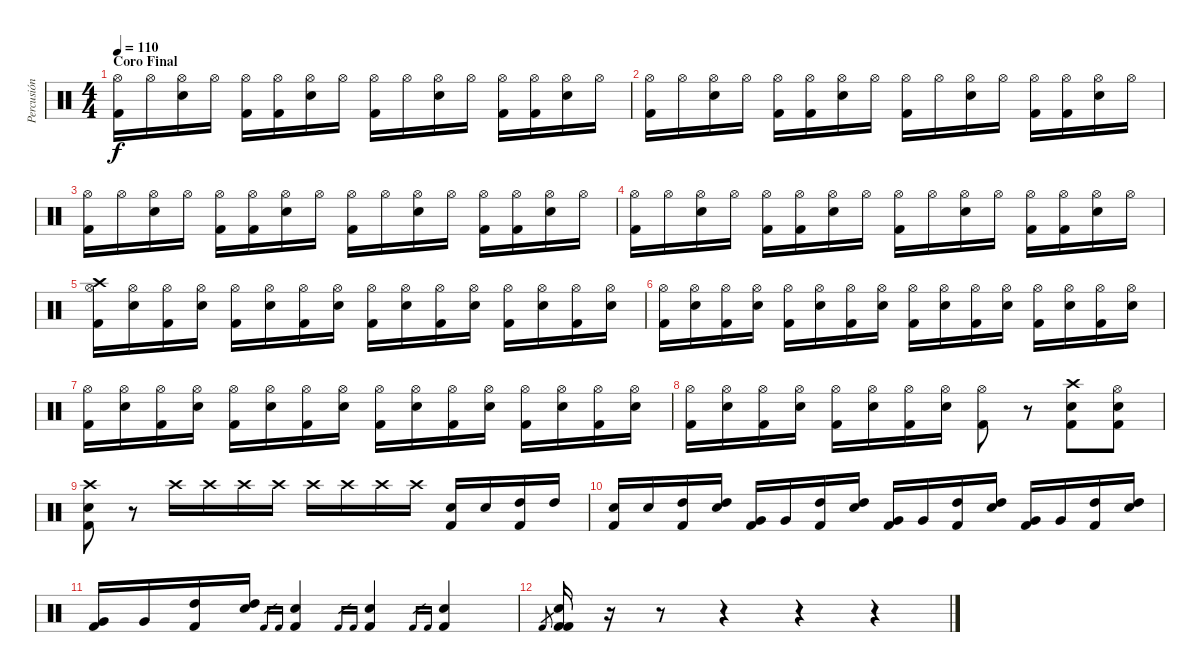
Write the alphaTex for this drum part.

\track ("Percusión" "Percusión") {instrument percussion}
\staff {score}
\articulation defaults
\ts (4 4)
\section ("" "Coro Final")
\tempo 110
\clef neutral
\ks c
("Hi-Hat (open)" "Kick (hit) 2").16{dy f} "Hi-Hat (open)".16 ("Hi-Hat (open)" "Snare (hit) 2").16 "Hi-Hat (open)".16 ("Hi-Hat (open)" "Kick (hit) 2").16 ("Hi-Hat (open)" "Kick (hit) 2").16 ("Hi-Hat (open)" "Snare (hit) 2").16 "Hi-Hat (open)".16 ("Hi-Hat (open)" "Kick (hit) 2").16 "Hi-Hat (open)".16 ("Hi-Hat (open)" "Snare (hit) 2").16 "Hi-Hat (open)".16 ("Hi-Hat (open)" "Kick (hit) 2").16 ("Hi-Hat (open)" "Kick (hit) 2").16 ("Hi-Hat (open)" "Snare (hit) 2").16 "Hi-Hat (open)".16 |
("Hi-Hat (open)" "Kick (hit) 2").16 "Hi-Hat (open)".16 ("Hi-Hat (open)" "Snare (hit) 2").16 "Hi-Hat (open)".16 ("Hi-Hat (open)" "Kick (hit) 2").16 ("Hi-Hat (open)" "Kick (hit) 2").16 ("Hi-Hat (open)" "Snare (hit) 2").16 "Hi-Hat (open)".16 ("Hi-Hat (open)" "Kick (hit) 2").16 "Hi-Hat (open)".16 ("Hi-Hat (open)" "Snare (hit) 2").16 "Hi-Hat (open)".16 ("Hi-Hat (open)" "Kick (hit) 2").16 ("Hi-Hat (open)" "Kick (hit) 2").16 ("Hi-Hat (open)" "Snare (hit) 2").16 "Hi-Hat (open)".16 |
("Hi-Hat (open)" "Kick (hit) 2").16 "Hi-Hat (open)".16 ("Hi-Hat (open)" "Snare (hit) 2").16 "Hi-Hat (open)".16 ("Hi-Hat (open)" "Kick (hit) 2").16 ("Hi-Hat (open)" "Kick (hit) 2").16 ("Hi-Hat (open)" "Snare (hit) 2").16 "Hi-Hat (open)".16 ("Hi-Hat (open)" "Kick (hit) 2").16 "Hi-Hat (open)".16 ("Hi-Hat (open)" "Snare (hit) 2").16 "Hi-Hat (open)".16 ("Hi-Hat (open)" "Kick (hit) 2").16 ("Hi-Hat (open)" "Kick (hit) 2").16 ("Hi-Hat (open)" "Snare (hit) 2").16 "Hi-Hat (open)".16 |
("Hi-Hat (open)" "Kick (hit) 2").16 "Hi-Hat (open)".16 ("Hi-Hat (open)" "Snare (hit) 2").16 "Hi-Hat (open)".16 ("Hi-Hat (open)" "Kick (hit) 2").16 ("Hi-Hat (open)" "Kick (hit) 2").16 ("Hi-Hat (open)" "Snare (hit) 2").16 "Hi-Hat (open)".16 ("Hi-Hat (open)" "Kick (hit) 2").16 "Hi-Hat (open)".16 ("Hi-Hat (open)" "Snare (hit) 2").16 "Hi-Hat (open)".16 ("Hi-Hat (open)" "Kick (hit) 2").16 ("Hi-Hat (open)" "Kick (hit) 2").16 ("Hi-Hat (open)" "Snare (hit) 2").16 "Hi-Hat (open)".16 |
("Crash high (hit)" "Hi-Hat (open)" "Kick (hit) 2").16 ("Hi-Hat (open)" "Snare (hit) 2").16 ("Hi-Hat (open)" "Kick (hit) 2").16 ("Hi-Hat (open)" "Snare (hit) 2").16 ("Hi-Hat (open)" "Kick (hit) 2").16 ("Hi-Hat (open)" "Snare (hit) 2").16 ("Hi-Hat (open)" "Kick (hit) 2").16 ("Hi-Hat (open)" "Snare (hit) 2").16 ("Hi-Hat (open)" "Kick (hit) 2").16 ("Hi-Hat (open)" "Snare (hit) 2").16 ("Hi-Hat (open)" "Kick (hit) 2").16 ("Hi-Hat (open)" "Snare (hit) 2").16 ("Hi-Hat (open)" "Kick (hit) 2").16 ("Hi-Hat (open)" "Snare (hit) 2").16 ("Hi-Hat (open)" "Kick (hit) 2").16 ("Hi-Hat (open)" "Snare (hit) 2").16 |
("Hi-Hat (open)" "Kick (hit) 2").16 ("Hi-Hat (open)" "Snare (hit) 2").16 ("Hi-Hat (open)" "Kick (hit) 2").16 ("Hi-Hat (open)" "Snare (hit) 2").16 ("Hi-Hat (open)" "Kick (hit) 2").16 ("Hi-Hat (open)" "Snare (hit) 2").16 ("Hi-Hat (open)" "Kick (hit) 2").16 ("Hi-Hat (open)" "Snare (hit) 2").16 ("Hi-Hat (open)" "Kick (hit) 2").16 ("Hi-Hat (open)" "Snare (hit) 2").16 ("Hi-Hat (open)" "Kick (hit) 2").16 ("Hi-Hat (open)" "Snare (hit) 2").16 ("Hi-Hat (open)" "Kick (hit) 2").16 ("Hi-Hat (open)" "Snare (hit) 2").16 ("Hi-Hat (open)" "Kick (hit) 2").16 ("Hi-Hat (open)" "Snare (hit) 2").16 |
("Hi-Hat (open)" "Kick (hit) 2").16 ("Hi-Hat (open)" "Snare (hit) 2").16 ("Hi-Hat (open)" "Kick (hit) 2").16 ("Hi-Hat (open)" "Snare (hit) 2").16 ("Hi-Hat (open)" "Kick (hit) 2").16 ("Hi-Hat (open)" "Snare (hit) 2").16 ("Hi-Hat (open)" "Kick (hit) 2").16 ("Hi-Hat (open)" "Snare (hit) 2").16 ("Hi-Hat (open)" "Kick (hit) 2").16 ("Hi-Hat (open)" "Snare (hit) 2").16 ("Hi-Hat (open)" "Kick (hit) 2").16 ("Hi-Hat (open)" "Snare (hit) 2").16 ("Hi-Hat (open)" "Kick (hit) 2").16 ("Hi-Hat (open)" "Snare (hit) 2").16 ("Hi-Hat (open)" "Kick (hit) 2").16 ("Hi-Hat (open)" "Snare (hit) 2").16 |
("Hi-Hat (open)" "Kick (hit) 2").16 ("Hi-Hat (open)" "Snare (hit) 2").16 ("Hi-Hat (open)" "Kick (hit) 2").16 ("Hi-Hat (open)" "Snare (hit) 2").16 ("Hi-Hat (open)" "Kick (hit) 2").16 ("Hi-Hat (open)" "Snare (hit) 2").16 ("Hi-Hat (open)" "Kick (hit) 2").16 ("Hi-Hat (open)" "Snare (hit) 2").16 ("Hi-Hat (open)" "Kick (hit) 2").8 r.8 ("Crash high (hit)" "Snare (hit) 2" "Kick (hit) 2").8 ("Hi-Hat (open)" "Snare (hit) 2" "Kick (hit) 2").8 |
("Crash high (hit)" "Snare (hit) 2" "Kick (hit) 2").8 r.8 "Crash high (hit)".16 "Crash high (hit)".16 "Crash high (hit)".16 "Crash high (hit)".16 "Crash high (hit)".16 "Crash high (hit)".16 "Crash high (hit)".16 "Crash high (hit)".16 ("Snare (hit) 2" "Kick (hit) 2").16 "Snare (hit) 2".16 ("High Tom (hit)" "Kick (hit) 2").16 "High Tom (hit)".16 |
("Snare (hit) 2" "Kick (hit) 2").16 "Snare (hit) 2".16 ("High Tom (hit)" "Kick (hit) 2").16 ("Snare (hit) 2" "High Tom (hit)").16 ("Very Low Tom (hit)" "Kick (hit) 2").16 "Very Low Tom (hit)".16 ("High Tom (hit)" "Kick (hit) 2").16 ("Snare (hit) 2" "High Tom (hit)").16 ("Very Low Tom (hit)" "Kick (hit) 2").16 "Very Low Tom (hit)".16 ("High Tom (hit)" "Kick (hit) 2").16 ("Snare (hit) 2" "High Tom (hit)").16 ("Very Low Tom (hit)" "Kick (hit) 2").16 "Very Low Tom (hit)".16 ("High Tom (hit)" "Kick (hit) 2").16 ("Snare (hit) 2" "High Tom (hit)").16 |
("Very Low Tom (hit)" "Kick (hit) 2").16 "Very Low Tom (hit)".16 ("High Tom (hit)" "Kick (hit) 2").16 ("Snare (hit) 2" "High Tom (hit)").16 "Kick (hit) 2".16{gr} "Kick (hit) 2".16{gr} ("Snare (hit) 2" "Kick (hit) 2").4 "Kick (hit) 2".16{gr} "Kick (hit) 2".16{gr} ("Snare (hit) 2" "Kick (hit) 2").4 "Kick (hit) 2".16{gr} "Kick (hit) 2".16{gr} ("Snare (hit) 2" "Kick (hit) 2").4 |
"Kick (hit) 2".8{gr} ("Kick (hit) 2" "Snare (hit) 2" "Kick (hit) 2").16 r.16 r.8 r.4 r.4 r.4
